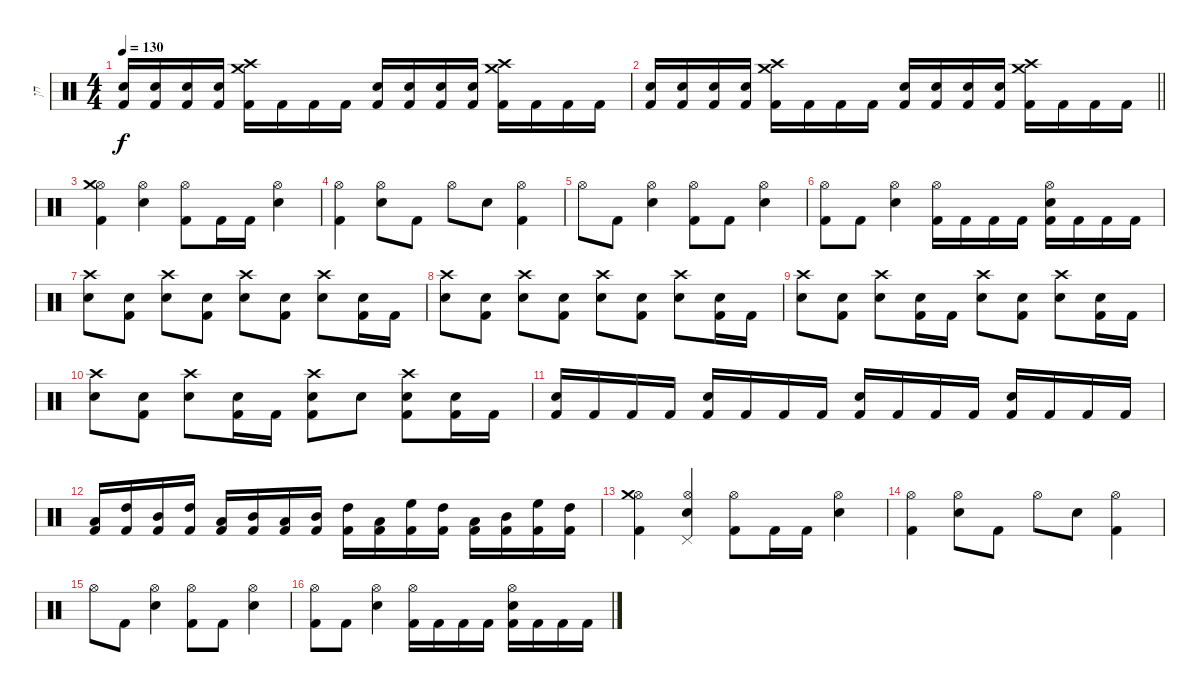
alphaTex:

\track ("חן" "חן") {instrument percussion}
\staff {score}
\articulation defaults
\ts (4 4)
\tempo 130
\clef neutral
\ks c
("Electric Snare (hit)" "Kick (hit) 2").16{dy f} ("Electric Snare (hit)" "Kick (hit) 2").16 ("Electric Snare (hit)" "Kick (hit) 2").16 ("Electric Snare (hit)" "Kick (hit) 2").16 ("Crash high (hit)" "Crash medium (hit)" "Kick (hit) 2").16 "Kick (hit) 2".16 "Kick (hit) 2".16 "Kick (hit) 2".16 ("Electric Snare (hit)" "Kick (hit) 2").16 ("Electric Snare (hit)" "Kick (hit) 2").16 ("Electric Snare (hit)" "Kick (hit) 2").16 ("Electric Snare (hit)" "Kick (hit) 2").16 ("Crash high (hit)" "Crash medium (hit)" "Kick (hit) 2").16 "Kick (hit) 2".16 "Kick (hit) 2".16 "Kick (hit) 2".16 |
\barLineRight lightlight
("Electric Snare (hit)" "Kick (hit) 2").16 ("Electric Snare (hit)" "Kick (hit) 2").16 ("Electric Snare (hit)" "Kick (hit) 2").16 ("Electric Snare (hit)" "Kick (hit) 2").16 ("Crash high (hit)" "Crash medium (hit)" "Kick (hit) 2").16 "Kick (hit) 2".16 "Kick (hit) 2".16 "Kick (hit) 2".16 ("Electric Snare (hit)" "Kick (hit) 2").16 ("Electric Snare (hit)" "Kick (hit) 2").16 ("Electric Snare (hit)" "Kick (hit) 2").16 ("Electric Snare (hit)" "Kick (hit) 2").16 ("Crash high (hit)" "Crash medium (hit)" "Kick (hit) 2").16 "Kick (hit) 2".16 "Kick (hit) 2".16 "Kick (hit) 2".16 |
("Hi-Hat (open)" "Crash medium (hit)" "Kick (hit) 2").4 ("Hi-Hat (open)" "Electric Snare (hit)").4 ("Hi-Hat (open)" "Kick (hit) 2").8 "Kick (hit) 2".16 "Kick (hit) 2".16 ("Hi-Hat (open)" "Electric Snare (hit)").4 |
("Hi-Hat (open)" "Kick (hit) 2").4 ("Hi-Hat (open)" "Electric Snare (hit)").8 "Kick (hit) 2".8 "Hi-Hat (open)".8 "Electric Snare (hit)".8 ("Hi-Hat (open)" "Kick (hit) 2").4 |
"Hi-Hat (open)".8 "Kick (hit) 2".8 ("Hi-Hat (open)" "Electric Snare (hit)").4 ("Hi-Hat (open)" "Kick (hit) 2").8 "Kick (hit) 2".8 ("Hi-Hat (open)" "Electric Snare (hit)").4 |
("Hi-Hat (open)" "Kick (hit) 2").8 "Kick (hit) 2".8 ("Hi-Hat (open)" "Electric Snare (hit)").4 ("Hi-Hat (open)" "Kick (hit) 2").16 "Kick (hit) 2".16 "Kick (hit) 2".16 "Kick (hit) 2".16 ("Hi-Hat (open)" "Electric Snare (hit)" "Kick (hit) 2").16 "Kick (hit) 2".16 "Kick (hit) 2".16 "Kick (hit) 2".16 |
("Crash high (hit)" "Electric Snare (hit)").8 ("Electric Snare (hit)" "Kick (hit) 2").8 ("Crash high (hit)" "Electric Snare (hit)").8 ("Electric Snare (hit)" "Kick (hit) 2").8 ("Crash high (hit)" "Electric Snare (hit)").8 ("Electric Snare (hit)" "Kick (hit) 2").8 ("Crash high (hit)" "Electric Snare (hit)").8 ("Electric Snare (hit)" "Kick (hit) 2").16 "Kick (hit) 2".16 |
("Crash high (hit)" "Electric Snare (hit)").8 ("Electric Snare (hit)" "Kick (hit) 2").8 ("Crash high (hit)" "Electric Snare (hit)").8 ("Electric Snare (hit)" "Kick (hit) 2").8 ("Crash high (hit)" "Electric Snare (hit)").8 ("Electric Snare (hit)" "Kick (hit) 2").8 ("Crash high (hit)" "Electric Snare (hit)").8 ("Electric Snare (hit)" "Kick (hit) 2").16 "Kick (hit) 2".16 |
("Crash high (hit)" "Electric Snare (hit)").8 ("Electric Snare (hit)" "Kick (hit) 2").8 ("Crash high (hit)" "Electric Snare (hit)").8 ("Electric Snare (hit)" "Kick (hit) 2").16 "Kick (hit) 2".16 ("Crash high (hit)" "Electric Snare (hit)").8 ("Electric Snare (hit)" "Kick (hit) 2").8 ("Crash high (hit)" "Electric Snare (hit)").8 ("Electric Snare (hit)" "Kick (hit) 2").16 "Kick (hit) 2".16 |
("Crash high (hit)" "Electric Snare (hit)").8 ("Electric Snare (hit)" "Kick (hit) 2").8 ("Crash high (hit)" "Electric Snare (hit)").8 ("Electric Snare (hit)" "Kick (hit) 2").16 "Kick (hit) 2".16 ("Crash high (hit)" "Electric Snare (hit)" "Kick (hit) 2").8 "Electric Snare (hit)".8 ("Crash high (hit)" "Electric Snare (hit)" "Kick (hit) 2").8 ("Electric Snare (hit)" "Kick (hit) 2").16 "Kick (hit) 2".16 |
("Electric Snare (hit)" "Kick (hit) 2").16 "Kick (hit) 2".16 "Kick (hit) 2".16 "Kick (hit) 2".16 ("Electric Snare (hit)" "Kick (hit) 2").16 "Kick (hit) 2".16 "Kick (hit) 2".16 "Kick (hit) 2".16 ("Electric Snare (hit)" "Kick (hit) 2").16 "Kick (hit) 2".16 "Kick (hit) 2".16 "Kick (hit) 2".16 ("Electric Snare (hit)" "Kick (hit) 2").16 "Kick (hit) 2".16 "Kick (hit) 2".16 "Kick (hit) 2".16 |
("Low Tom (hit)" "Kick (hit) 2").16 ("High Tom (hit)" "Kick (hit) 2").16 ("Mid Tom (hit)" "Kick (hit) 2").16 ("High Tom (hit)" "Kick (hit) 2").16 ("Low Tom (hit)" "Kick (hit) 2").16 ("Mid Tom (hit)" "Kick (hit) 2").16 ("Low Tom (hit)" "Kick (hit) 2").16 ("Mid Tom (hit)" "Kick (hit) 2").16 ("High Tom (hit)" "Kick (hit) 2").16 ("Low Tom (hit)" "Kick (hit) 2").16 ("High Floor Tom (hit)" "Kick (hit) 2").16 ("High Tom (hit)" "Kick (hit) 2").16 ("Low Tom (hit)" "Kick (hit) 2").16 ("Mid Tom (hit)" "Kick (hit) 2").16 ("High Floor Tom (hit)" "Kick (hit) 2").16 ("High Tom (hit)" "Kick (hit) 2").16 |
("Hi-Hat (open)" "Crash medium (hit)" "Kick (hit) 2").4 ("Hi-Hat (open)" "Electric Snare (hit)" "Pedal Hi-Hat (hit)").4 ("Hi-Hat (open)" "Kick (hit) 2").8 "Kick (hit) 2".16 "Kick (hit) 2".16 ("Hi-Hat (open)" "Electric Snare (hit)").4 |
("Hi-Hat (open)" "Kick (hit) 2").4 ("Hi-Hat (open)" "Electric Snare (hit)").8 "Kick (hit) 2".8 "Hi-Hat (open)".8 "Electric Snare (hit)".8 ("Hi-Hat (open)" "Kick (hit) 2").4 |
"Hi-Hat (open)".8 "Kick (hit) 2".8 ("Hi-Hat (open)" "Electric Snare (hit)").4 ("Hi-Hat (open)" "Kick (hit) 2").8 "Kick (hit) 2".8 ("Hi-Hat (open)" "Electric Snare (hit)").4 |
("Hi-Hat (open)" "Kick (hit) 2").8 "Kick (hit) 2".8 ("Hi-Hat (open)" "Electric Snare (hit)").4 ("Hi-Hat (open)" "Kick (hit) 2").16 "Kick (hit) 2".16 "Kick (hit) 2".16 "Kick (hit) 2".16 ("Hi-Hat (open)" "Electric Snare (hit)" "Kick (hit) 2").16 "Kick (hit) 2".16 "Kick (hit) 2".16 "Kick (hit) 2".16
